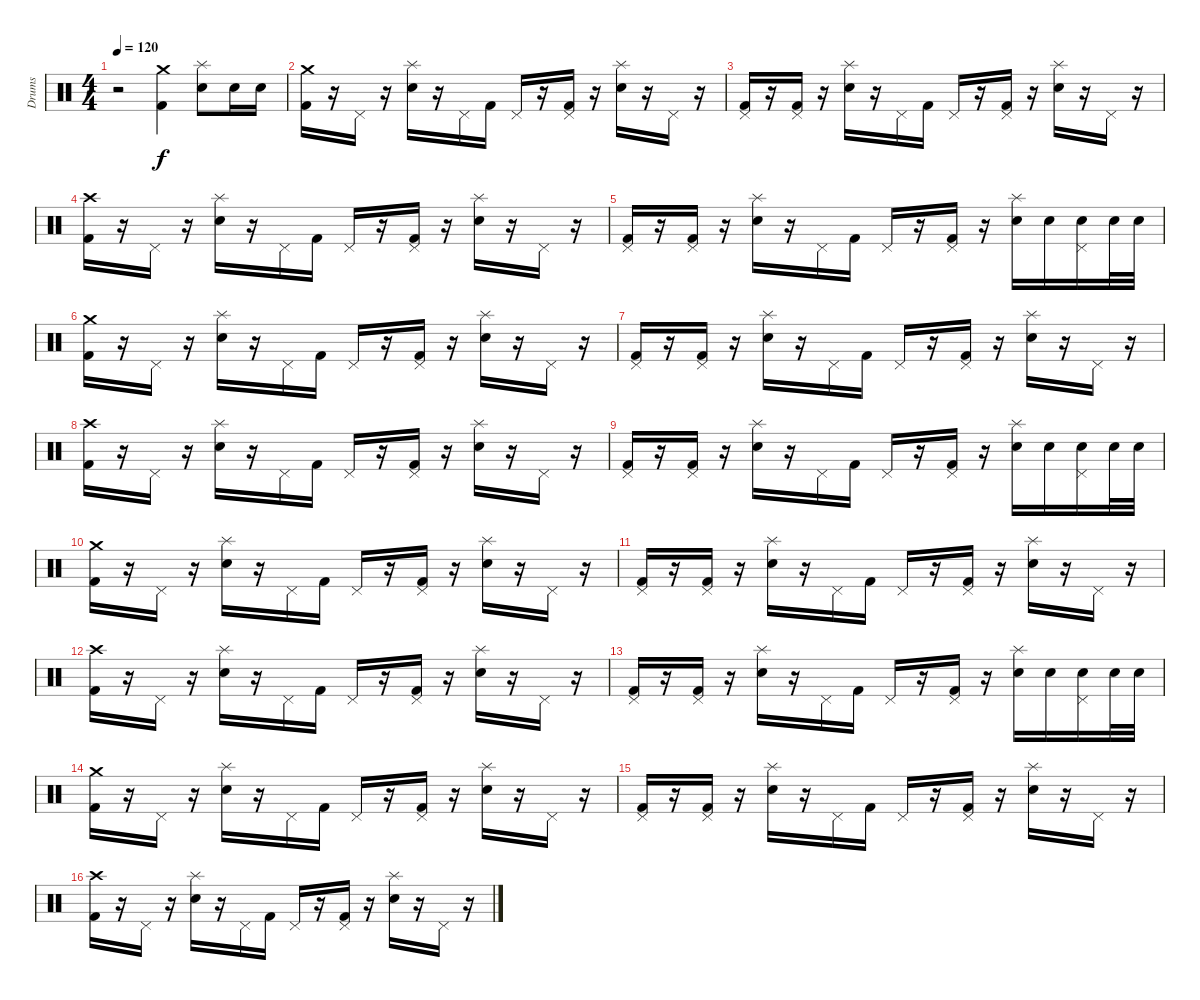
\track ("Drums" "Drums") {instrument percussion}
\staff {score}
\articulation defaults
\ts (4 4)
\tempo 120
\clef neutral
\ks c
r.2{dy f} ("Crash medium (hit)" "Kick (hit) 2").4 ("Splash (hit)" "Electric Snare (hit)").8 "Electric Snare (hit)".16 "Electric Snare (hit)".16 |
\section ("" "")
("Crash medium (hit)" "Kick (hit) 2").16 r.16 "Pedal Hi-Hat (hit)".16 r.16 ("Splash (hit)" "Electric Snare (hit)").16 r.16 "Pedal Hi-Hat (hit)".16 "Kick (hit) 2".16 "Pedal Hi-Hat (hit)".16 r.16 ("Pedal Hi-Hat (hit)" "Kick (hit) 2").16 r.16 ("Splash (hit)" "Electric Snare (hit)").16 r.16 "Pedal Hi-Hat (hit)".16 r.16 |
("Pedal Hi-Hat (hit)" "Kick (hit) 2").16 r.16 ("Pedal Hi-Hat (hit)" "Kick (hit) 2").16 r.16 ("Splash (hit)" "Electric Snare (hit)").16 r.16 "Pedal Hi-Hat (hit)".16 "Kick (hit) 2".16 "Pedal Hi-Hat (hit)".16 r.16 ("Pedal Hi-Hat (hit)" "Kick (hit) 2").16 r.16 ("Splash (hit)" "Electric Snare (hit)").16 r.16 "Pedal Hi-Hat (hit)".16 r.16 |
("Crash high (hit)" "Kick (hit) 2").16 r.16 "Pedal Hi-Hat (hit)".16 r.16 ("Splash (hit)" "Electric Snare (hit)").16 r.16 "Pedal Hi-Hat (hit)".16 "Kick (hit) 2".16 "Pedal Hi-Hat (hit)".16 r.16 ("Pedal Hi-Hat (hit)" "Kick (hit) 2").16 r.16 ("Splash (hit)" "Electric Snare (hit)").16 r.16 "Pedal Hi-Hat (hit)".16 r.16 |
("Pedal Hi-Hat (hit)" "Kick (hit) 2").16 r.16 ("Pedal Hi-Hat (hit)" "Kick (hit) 2").16 r.16 ("Splash (hit)" "Electric Snare (hit)").16 r.16 "Pedal Hi-Hat (hit)".16 "Kick (hit) 2".16 "Pedal Hi-Hat (hit)".16 r.16 ("Pedal Hi-Hat (hit)" "Kick (hit) 2").16 r.16 ("Splash (hit)" "Electric Snare (hit)").16 "Electric Snare (hit)".16 ("Pedal Hi-Hat (hit)" "Electric Snare (hit)").16 "Electric Snare (hit)".32 "Electric Snare (hit)".32 |
("Crash medium (hit)" "Kick (hit) 2").16 r.16 "Pedal Hi-Hat (hit)".16 r.16 ("Splash (hit)" "Electric Snare (hit)").16 r.16 "Pedal Hi-Hat (hit)".16 "Kick (hit) 2".16 "Pedal Hi-Hat (hit)".16 r.16 ("Pedal Hi-Hat (hit)" "Kick (hit) 2").16 r.16 ("Splash (hit)" "Electric Snare (hit)").16 r.16 "Pedal Hi-Hat (hit)".16 r.16 |
("Pedal Hi-Hat (hit)" "Kick (hit) 2").16 r.16 ("Pedal Hi-Hat (hit)" "Kick (hit) 2").16 r.16 ("Splash (hit)" "Electric Snare (hit)").16 r.16 "Pedal Hi-Hat (hit)".16 "Kick (hit) 2".16 "Pedal Hi-Hat (hit)".16 r.16 ("Pedal Hi-Hat (hit)" "Kick (hit) 2").16 r.16 ("Splash (hit)" "Electric Snare (hit)").16 r.16 "Pedal Hi-Hat (hit)".16 r.16 |
("Crash high (hit)" "Kick (hit) 2").16 r.16 "Pedal Hi-Hat (hit)".16 r.16 ("Splash (hit)" "Electric Snare (hit)").16 r.16 "Pedal Hi-Hat (hit)".16 "Kick (hit) 2".16 "Pedal Hi-Hat (hit)".16 r.16 ("Pedal Hi-Hat (hit)" "Kick (hit) 2").16 r.16 ("Splash (hit)" "Electric Snare (hit)").16 r.16 "Pedal Hi-Hat (hit)".16 r.16 |
("Pedal Hi-Hat (hit)" "Kick (hit) 2").16 r.16 ("Pedal Hi-Hat (hit)" "Kick (hit) 2").16 r.16 ("Splash (hit)" "Electric Snare (hit)").16 r.16 "Pedal Hi-Hat (hit)".16 "Kick (hit) 2".16 "Pedal Hi-Hat (hit)".16 r.16 ("Pedal Hi-Hat (hit)" "Kick (hit) 2").16 r.16 ("Splash (hit)" "Electric Snare (hit)").16 "Electric Snare (hit)".16 ("Pedal Hi-Hat (hit)" "Electric Snare (hit)").16 "Electric Snare (hit)".32 "Electric Snare (hit)".32 |
("Crash medium (hit)" "Kick (hit) 2").16 r.16 "Pedal Hi-Hat (hit)".16 r.16 ("Splash (hit)" "Electric Snare (hit)").16 r.16 "Pedal Hi-Hat (hit)".16 "Kick (hit) 2".16 "Pedal Hi-Hat (hit)".16 r.16 ("Pedal Hi-Hat (hit)" "Kick (hit) 2").16 r.16 ("Splash (hit)" "Electric Snare (hit)").16 r.16 "Pedal Hi-Hat (hit)".16 r.16 |
("Pedal Hi-Hat (hit)" "Kick (hit) 2").16 r.16 ("Pedal Hi-Hat (hit)" "Kick (hit) 2").16 r.16 ("Splash (hit)" "Electric Snare (hit)").16 r.16 "Pedal Hi-Hat (hit)".16 "Kick (hit) 2".16 "Pedal Hi-Hat (hit)".16 r.16 ("Pedal Hi-Hat (hit)" "Kick (hit) 2").16 r.16 ("Splash (hit)" "Electric Snare (hit)").16 r.16 "Pedal Hi-Hat (hit)".16 r.16 |
("Crash high (hit)" "Kick (hit) 2").16 r.16 "Pedal Hi-Hat (hit)".16 r.16 ("Splash (hit)" "Electric Snare (hit)").16 r.16 "Pedal Hi-Hat (hit)".16 "Kick (hit) 2".16 "Pedal Hi-Hat (hit)".16 r.16 ("Pedal Hi-Hat (hit)" "Kick (hit) 2").16 r.16 ("Splash (hit)" "Electric Snare (hit)").16 r.16 "Pedal Hi-Hat (hit)".16 r.16 |
("Pedal Hi-Hat (hit)" "Kick (hit) 2").16 r.16 ("Pedal Hi-Hat (hit)" "Kick (hit) 2").16 r.16 ("Splash (hit)" "Electric Snare (hit)").16 r.16 "Pedal Hi-Hat (hit)".16 "Kick (hit) 2".16 "Pedal Hi-Hat (hit)".16 r.16 ("Pedal Hi-Hat (hit)" "Kick (hit) 2").16 r.16 ("Splash (hit)" "Electric Snare (hit)").16 "Electric Snare (hit)".16 ("Pedal Hi-Hat (hit)" "Electric Snare (hit)").16 "Electric Snare (hit)".32 "Electric Snare (hit)".32 |
("Crash medium (hit)" "Kick (hit) 2").16 r.16 "Pedal Hi-Hat (hit)".16 r.16 ("Splash (hit)" "Electric Snare (hit)").16 r.16 "Pedal Hi-Hat (hit)".16 "Kick (hit) 2".16 "Pedal Hi-Hat (hit)".16 r.16 ("Pedal Hi-Hat (hit)" "Kick (hit) 2").16 r.16 ("Splash (hit)" "Electric Snare (hit)").16 r.16 "Pedal Hi-Hat (hit)".16 r.16 |
("Pedal Hi-Hat (hit)" "Kick (hit) 2").16 r.16 ("Pedal Hi-Hat (hit)" "Kick (hit) 2").16 r.16 ("Splash (hit)" "Electric Snare (hit)").16 r.16 "Pedal Hi-Hat (hit)".16 "Kick (hit) 2".16 "Pedal Hi-Hat (hit)".16 r.16 ("Pedal Hi-Hat (hit)" "Kick (hit) 2").16 r.16 ("Splash (hit)" "Electric Snare (hit)").16 r.16 "Pedal Hi-Hat (hit)".16 r.16 |
("Crash high (hit)" "Kick (hit) 2").16 r.16 "Pedal Hi-Hat (hit)".16 r.16 ("Splash (hit)" "Electric Snare (hit)").16 r.16 "Pedal Hi-Hat (hit)".16 "Kick (hit) 2".16 "Pedal Hi-Hat (hit)".16 r.16 ("Pedal Hi-Hat (hit)" "Kick (hit) 2").16 r.16 ("Splash (hit)" "Electric Snare (hit)").16 r.16 "Pedal Hi-Hat (hit)".16 r.16
